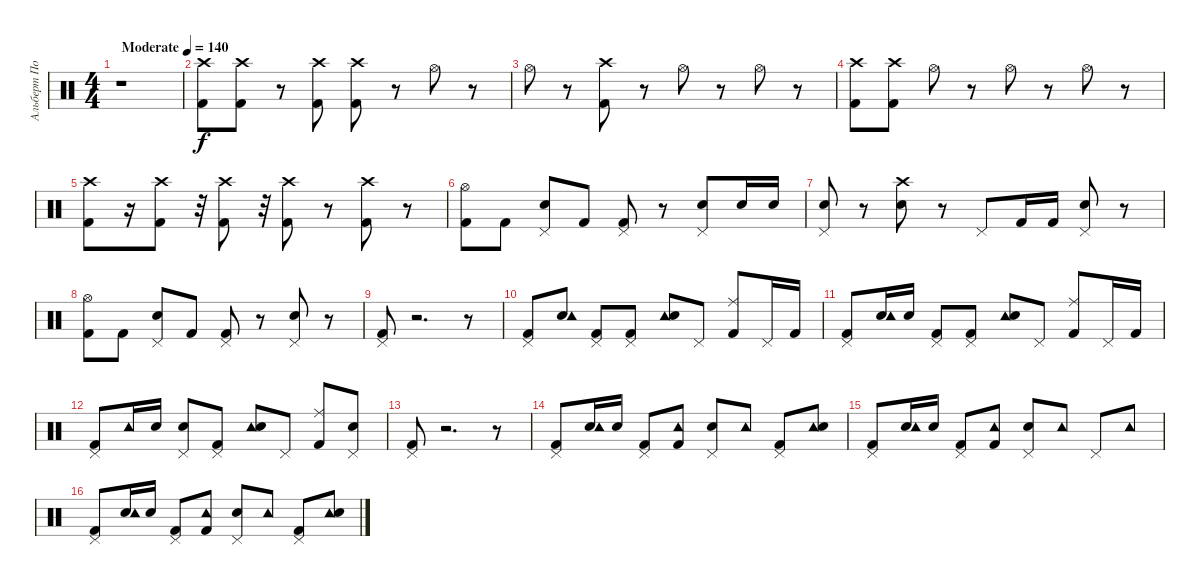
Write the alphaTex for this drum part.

\track ("Альберт Потапкин" "Альберт По") {instrument percussion}
\staff {score}
\articulation defaults
\ts (4 4)
\tempo (140 "Moderate")
\clef neutral
\ks c
r.1{dy f} |
("Crash high (hit)" "Kick (hit) 2").8 ("Crash high (hit)" "Kick (hit) 2").8 r.8 ("Crash high (hit)" "Kick (hit) 2").8 ("Crash high (hit)" "Kick (hit) 2").8 r.8 "Hi-Hat (open)".8 r.8 |
"Hi-Hat (open)".8 r.8 ("Crash high (hit)" "Kick (hit) 2").8 r.8 "Hi-Hat (open)".8 r.8 "Hi-Hat (open)".8 r.8 |
("Crash high (hit)" "Kick (hit) 2").8 ("Kick (hit) 2" "Crash high (hit)").8 "Hi-Hat (open)".8 r.8 "Hi-Hat (open)".8 r.8 "Hi-Hat (open)".8 r.8 |
("Crash high (hit)" "Kick (hit) 2").8 r.16 ("Kick (hit) 2" "Crash high (hit)").8 r.32 ("Kick (hit) 2" "Crash high (hit)").8 r.32 ("Crash high (hit)" "Kick (hit) 2").8 r.8 ("Crash high (hit)" "Kick (hit) 2").8 r.8 |
("Hi-Hat (open)" "Kick (hit) 2").8 "Kick (hit) 2".8 ("Pedal Hi-Hat (hit)" "Electric Snare (hit)").8 "Kick (hit) 2".8 ("Pedal Hi-Hat (hit)" "Kick (hit) 2").8 r.8 ("Pedal Hi-Hat (hit)" "Electric Snare (hit)").8 "Snare (hit) 2".16 "Snare (hit) 2".16 |
("Pedal Hi-Hat (hit)" "Snare (hit) 2").8 r.8 ("Crash high (hit)" "Electric Snare (hit)").8 r.8 "Pedal Hi-Hat (hit)".8 "Kick (hit) 2".16 "Kick (hit) 2".16 ("Pedal Hi-Hat (hit)" "Electric Snare (hit)").8 r.8 |
("Hi-Hat (open)" "Kick (hit) 2").8 "Kick (hit) 2".8 ("Pedal Hi-Hat (hit)" "Electric Snare (hit)").8 "Kick (hit) 2".8 ("Pedal Hi-Hat (hit)" "Kick (hit) 2").8 r.8 ("Pedal Hi-Hat (hit)" "Electric Snare (hit)").8 r.8 |
("Pedal Hi-Hat (hit)" "Kick (hit) 2").8 r.2{d} r.8 |
("Pedal Hi-Hat (hit)" "Kick (hit) 2").8 ("Electric Snare (hit)" "Tambourine (hit)").8 ("Pedal Hi-Hat (hit)" "Kick (hit) 2").8 ("Kick (hit) 2" "Pedal Hi-Hat (hit)").8 ("Tambourine (hit)" "Electric Snare (hit)").8 "Pedal Hi-Hat (hit)".8 ("Ride (middle)" "Kick (hit) 2").8 "Pedal Hi-Hat (hit)".16 "Kick (hit) 2".16 |
("Pedal Hi-Hat (hit)" "Kick (hit) 2").8 ("Electric Snare (hit)" "Tambourine (hit)").16 "Electric Snare (hit)".16 ("Pedal Hi-Hat (hit)" "Kick (hit) 2").8 ("Kick (hit) 2" "Pedal Hi-Hat (hit)").8 ("Tambourine (hit)" "Electric Snare (hit)").8 "Pedal Hi-Hat (hit)".8 ("Ride (middle)" "Kick (hit) 2").8 "Pedal Hi-Hat (hit)".16 "Kick (hit) 2".16 |
("Pedal Hi-Hat (hit)" "Kick (hit) 2").8 "Tambourine (hit)".16 "Electric Snare (hit)".16 ("Pedal Hi-Hat (hit)" "Electric Snare (hit)").8 ("Kick (hit) 2" "Pedal Hi-Hat (hit)").8 ("Tambourine (hit)" "Electric Snare (hit)").8 "Pedal Hi-Hat (hit)".8 ("Ride (middle)" "Kick (hit) 2").8 ("Pedal Hi-Hat (hit)" "Electric Snare (hit)").8 |
("Pedal Hi-Hat (hit)" "Kick (hit) 2").8 r.2{d} r.8 |
("Pedal Hi-Hat (hit)" "Kick (hit) 2").8 ("Electric Snare (hit)" "Tambourine (hit)").16 "Electric Snare (hit)".16 ("Pedal Hi-Hat (hit)" "Kick (hit) 2").8 ("Kick (hit) 2" "Tambourine (hit)").8 ("Pedal Hi-Hat (hit)" "Electric Snare (hit)").8 "Tambourine (hit)".8 ("Pedal Hi-Hat (hit)" "Kick (hit) 2").8 ("Tambourine (hit)" "Electric Snare (hit)").8 |
("Pedal Hi-Hat (hit)" "Kick (hit) 2").8 ("Electric Snare (hit)" "Tambourine (hit)").16 "Electric Snare (hit)".16 ("Pedal Hi-Hat (hit)" "Kick (hit) 2").8 ("Kick (hit) 2" "Tambourine (hit)").8 ("Pedal Hi-Hat (hit)" "Electric Snare (hit)").8 "Tambourine (hit)".8 "Pedal Hi-Hat (hit)".8 "Tambourine (hit)".8 |
("Pedal Hi-Hat (hit)" "Kick (hit) 2").8 ("Electric Snare (hit)" "Tambourine (hit)").16 "Electric Snare (hit)".16 ("Pedal Hi-Hat (hit)" "Kick (hit) 2").8 ("Kick (hit) 2" "Tambourine (hit)").8 ("Pedal Hi-Hat (hit)" "Electric Snare (hit)").8 "Tambourine (hit)".8 ("Pedal Hi-Hat (hit)" "Kick (hit) 2").8 ("Tambourine (hit)" "Electric Snare (hit)").8
